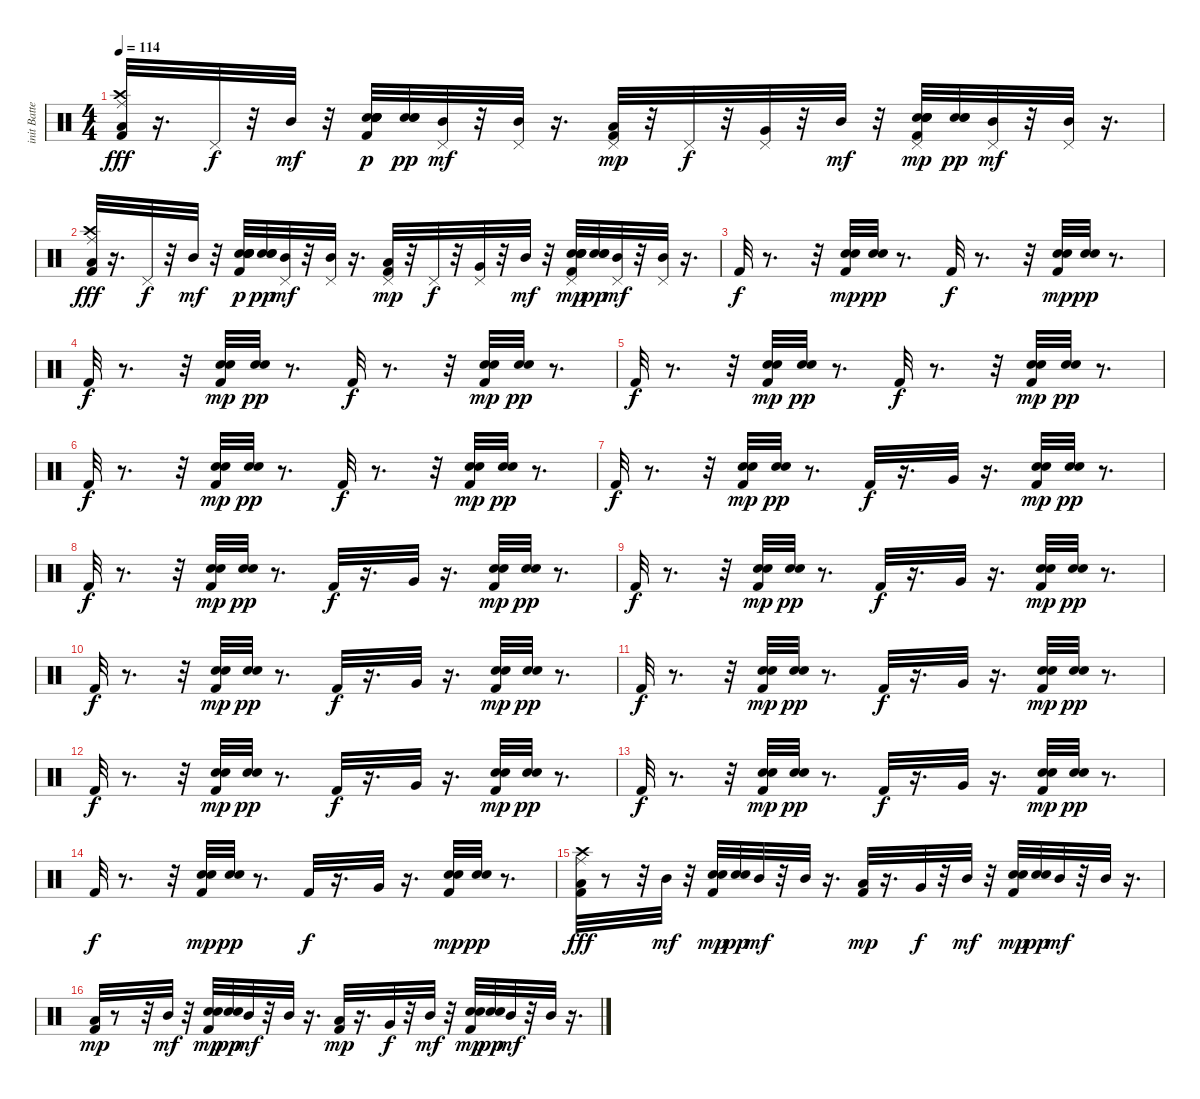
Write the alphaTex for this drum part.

\track ("init Batterie" "init Batte") {instrument percussion}
\staff {score}
\articulation defaults
\ts (4 4)
\tempo 114
\clef neutral
\ks c
("Kick (hit) 2" "Low Tom (hit)" "Crash high (hit)" "Ride (middle)").32{dy fff} r.16{d} "Pedal Hi-Hat (hit)".32{dy f} r.32 "Mid Tom (hit)".32{dy mf} r.32 ("Snare (hit) 2" "Hand Clap (hit)" "Kick (hit) 2" "Snare (hit) 2" "Hand Clap (hit)" "Snare (hit) 2").32{dy p} ("Snare (hit) 2" "Hand Clap (hit)" "Hand Clap (hit)").32{dy pp} ("Pedal Hi-Hat (hit)" "Mid Tom (hit)").32{dy mf} r.32 ("Pedal Hi-Hat (hit)" "Mid Tom (hit)").32 r.16{d} ("Kick (hit) 2" "Pedal Hi-Hat (hit)" "Low Tom (hit)").32{dy mp} r.32 "Pedal Hi-Hat (hit)".32{dy f} r.32 ("Very Low Tom (hit)" "Pedal Hi-Hat (hit)").32 r.32 "Mid Tom (hit)".32{dy mf} r.32 ("Snare (hit) 2" "Hand Clap (hit)" "Kick (hit) 2" "Snare (hit) 2" "Hand Clap (hit)" "Pedal Hi-Hat (hit)").32{dy mp} ("Snare (hit) 2" "Hand Clap (hit)" "Hand Clap (hit)").32{dy pp} ("Pedal Hi-Hat (hit)" "Mid Tom (hit)").32{dy mf} r.32 ("Pedal Hi-Hat (hit)" "Mid Tom (hit)").32 r.16{d} |
("Kick (hit) 2" "Low Tom (hit)" "Crash high (hit)" "Ride (middle)").32{dy fff} r.16{d} "Pedal Hi-Hat (hit)".32{dy f} r.32 "Mid Tom (hit)".32{dy mf} r.32 ("Snare (hit) 2" "Hand Clap (hit)" "Kick (hit) 2" "Snare (hit) 2" "Hand Clap (hit)" "Snare (hit) 2").32{dy p} ("Snare (hit) 2" "Hand Clap (hit)" "Hand Clap (hit)").32{dy pp} ("Pedal Hi-Hat (hit)" "Mid Tom (hit)").32{dy mf} r.32 ("Pedal Hi-Hat (hit)" "Mid Tom (hit)").32 r.16{d} ("Kick (hit) 2" "Pedal Hi-Hat (hit)" "Low Tom (hit)").32{dy mp} r.32 "Pedal Hi-Hat (hit)".32{dy f} r.32 ("Very Low Tom (hit)" "Pedal Hi-Hat (hit)").32 r.32 "Mid Tom (hit)".32{dy mf} r.32 ("Snare (hit) 2" "Hand Clap (hit)" "Kick (hit) 2" "Snare (hit) 2" "Hand Clap (hit)" "Pedal Hi-Hat (hit)").32{dy mp} ("Snare (hit) 2" "Hand Clap (hit)" "Hand Clap (hit)").32{dy pp} ("Pedal Hi-Hat (hit)" "Mid Tom (hit)").32{dy mf} r.32 ("Pedal Hi-Hat (hit)" "Mid Tom (hit)").32 r.16{d} |
"Kick (hit) 2".32{dy f} r.8{d} r.32 ("Hand Clap (hit)" "Kick (hit) 2" "Hand Clap (hit)").32{dy mp} ("Hand Clap (hit)" "Hand Clap (hit)").32{dy pp} r.8{d} "Kick (hit) 2".32{dy f} r.8{d} r.32 ("Hand Clap (hit)" "Kick (hit) 2" "Hand Clap (hit)").32{dy mp} ("Hand Clap (hit)" "Hand Clap (hit)").32{dy pp} r.8{d} |
"Kick (hit) 2".32{dy f} r.8{d} r.32 ("Hand Clap (hit)" "Kick (hit) 2" "Hand Clap (hit)").32{dy mp} ("Hand Clap (hit)" "Hand Clap (hit)").32{dy pp} r.8{d} "Kick (hit) 2".32{dy f} r.8{d} r.32 ("Hand Clap (hit)" "Kick (hit) 2" "Hand Clap (hit)").32{dy mp} ("Hand Clap (hit)" "Hand Clap (hit)").32{dy pp} r.8{d} |
"Kick (hit) 2".32{dy f} r.8{d} r.32 ("Hand Clap (hit)" "Kick (hit) 2" "Hand Clap (hit)").32{dy mp} ("Hand Clap (hit)" "Hand Clap (hit)").32{dy pp} r.8{d} "Kick (hit) 2".32{dy f} r.8{d} r.32 ("Hand Clap (hit)" "Kick (hit) 2" "Hand Clap (hit)").32{dy mp} ("Hand Clap (hit)" "Hand Clap (hit)").32{dy pp} r.8{d} |
"Kick (hit) 2".32{dy f} r.8{d} r.32 ("Hand Clap (hit)" "Kick (hit) 2" "Hand Clap (hit)").32{dy mp} ("Hand Clap (hit)" "Hand Clap (hit)").32{dy pp} r.8{d} "Kick (hit) 2".32{dy f} r.8{d} r.32 ("Hand Clap (hit)" "Kick (hit) 2" "Hand Clap (hit)").32{dy mp} ("Hand Clap (hit)" "Hand Clap (hit)").32{dy pp} r.8{d} |
"Kick (hit) 2".32{dy f} r.8{d} r.32 ("Hand Clap (hit)" "Kick (hit) 2" "Hand Clap (hit)").32{dy mp} ("Hand Clap (hit)" "Hand Clap (hit)").32{dy pp} r.8{d} "Kick (hit) 2".32{dy f} r.16{d} "Very Low Tom (hit)".32 r.16{d} ("Hand Clap (hit)" "Kick (hit) 2" "Hand Clap (hit)").32{dy mp} ("Hand Clap (hit)" "Hand Clap (hit)").32{dy pp} r.8{d} |
"Kick (hit) 2".32{dy f} r.8{d} r.32 ("Hand Clap (hit)" "Kick (hit) 2" "Hand Clap (hit)").32{dy mp} ("Hand Clap (hit)" "Hand Clap (hit)").32{dy pp} r.8{d} "Kick (hit) 2".32{dy f} r.16{d} "Very Low Tom (hit)".32 r.16{d} ("Hand Clap (hit)" "Kick (hit) 2" "Hand Clap (hit)").32{dy mp} ("Hand Clap (hit)" "Hand Clap (hit)").32{dy pp} r.8{d} |
"Kick (hit) 2".32{dy f} r.8{d} r.32 ("Hand Clap (hit)" "Kick (hit) 2" "Hand Clap (hit)").32{dy mp} ("Hand Clap (hit)" "Hand Clap (hit)").32{dy pp} r.8{d} "Kick (hit) 2".32{dy f} r.16{d} "Very Low Tom (hit)".32 r.16{d} ("Hand Clap (hit)" "Kick (hit) 2" "Hand Clap (hit)").32{dy mp} ("Hand Clap (hit)" "Hand Clap (hit)").32{dy pp} r.8{d} |
"Kick (hit) 2".32{dy f} r.8{d} r.32 ("Hand Clap (hit)" "Kick (hit) 2" "Hand Clap (hit)").32{dy mp} ("Hand Clap (hit)" "Hand Clap (hit)").32{dy pp} r.8{d} "Kick (hit) 2".32{dy f} r.16{d} "Very Low Tom (hit)".32 r.16{d} ("Hand Clap (hit)" "Kick (hit) 2" "Hand Clap (hit)").32{dy mp} ("Hand Clap (hit)" "Hand Clap (hit)").32{dy pp} r.8{d} |
"Kick (hit) 2".32{dy f} r.8{d} r.32 ("Hand Clap (hit)" "Kick (hit) 2" "Hand Clap (hit)").32{dy mp} ("Hand Clap (hit)" "Hand Clap (hit)").32{dy pp} r.8{d} "Kick (hit) 2".32{dy f} r.16{d} "Very Low Tom (hit)".32 r.16{d} ("Hand Clap (hit)" "Kick (hit) 2" "Hand Clap (hit)").32{dy mp} ("Hand Clap (hit)" "Hand Clap (hit)").32{dy pp} r.8{d} |
"Kick (hit) 2".32{dy f} r.8{d} r.32 ("Hand Clap (hit)" "Kick (hit) 2" "Hand Clap (hit)").32{dy mp} ("Hand Clap (hit)" "Hand Clap (hit)").32{dy pp} r.8{d} "Kick (hit) 2".32{dy f} r.16{d} "Very Low Tom (hit)".32 r.16{d} ("Hand Clap (hit)" "Kick (hit) 2" "Hand Clap (hit)").32{dy mp} ("Hand Clap (hit)" "Hand Clap (hit)").32{dy pp} r.8{d} |
"Kick (hit) 2".32{dy f} r.8{d} r.32 ("Hand Clap (hit)" "Kick (hit) 2" "Hand Clap (hit)").32{dy mp} ("Hand Clap (hit)" "Hand Clap (hit)").32{dy pp} r.8{d} "Kick (hit) 2".32{dy f} r.16{d} "Very Low Tom (hit)".32 r.16{d} ("Hand Clap (hit)" "Kick (hit) 2" "Hand Clap (hit)").32{dy mp} ("Hand Clap (hit)" "Hand Clap (hit)").32{dy pp} r.8{d} |
"Kick (hit) 2".32{dy f} r.8{d} r.32 ("Hand Clap (hit)" "Kick (hit) 2" "Hand Clap (hit)").32{dy mp} ("Hand Clap (hit)" "Hand Clap (hit)").32{dy pp} r.8{d} "Kick (hit) 2".32{dy f} r.16{d} "Very Low Tom (hit)".32 r.16{d} ("Hand Clap (hit)" "Kick (hit) 2" "Hand Clap (hit)").32{dy mp} ("Hand Clap (hit)" "Hand Clap (hit)").32{dy pp} r.8{d} |
("Kick (hit) 2" "Low Tom (hit)" "Crash high (hit)" "Ride (middle)").32{dy fff} r.8 r.32 "Mid Tom (hit)".32{dy mf} r.32 ("Hand Clap (hit)" "Kick (hit) 2" "Hand Clap (hit)").32{dy mp} ("Hand Clap (hit)" "Hand Clap (hit)").32{dy pp} "Mid Tom (hit)".32{dy mf} r.32 "Mid Tom (hit)".32 r.16{d} ("Kick (hit) 2" "Low Tom (hit)").32{dy mp} r.16{d} "Very Low Tom (hit)".32{dy f} r.32 "Mid Tom (hit)".32{dy mf} r.32 ("Hand Clap (hit)" "Kick (hit) 2" "Hand Clap (hit)").32{dy mp} ("Hand Clap (hit)" "Hand Clap (hit)").32{dy pp} "Mid Tom (hit)".32{dy mf} r.32 "Mid Tom (hit)".32 r.16{d} |
("Kick (hit) 2" "Low Tom (hit)").32{dy mp} r.8 r.32 "Mid Tom (hit)".32{dy mf} r.32 ("Hand Clap (hit)" "Kick (hit) 2" "Hand Clap (hit)").32{dy mp} ("Hand Clap (hit)" "Hand Clap (hit)").32{dy pp} "Mid Tom (hit)".32{dy mf} r.32 "Mid Tom (hit)".32 r.16{d} ("Kick (hit) 2" "Low Tom (hit)").32{dy mp} r.16{d} "Very Low Tom (hit)".32{dy f} r.32 "Mid Tom (hit)".32{dy mf} r.32 ("Hand Clap (hit)" "Kick (hit) 2" "Hand Clap (hit)").32{dy mp} ("Hand Clap (hit)" "Hand Clap (hit)").32{dy pp} "Mid Tom (hit)".32{dy mf} r.32 "Mid Tom (hit)".32 r.16{d}
